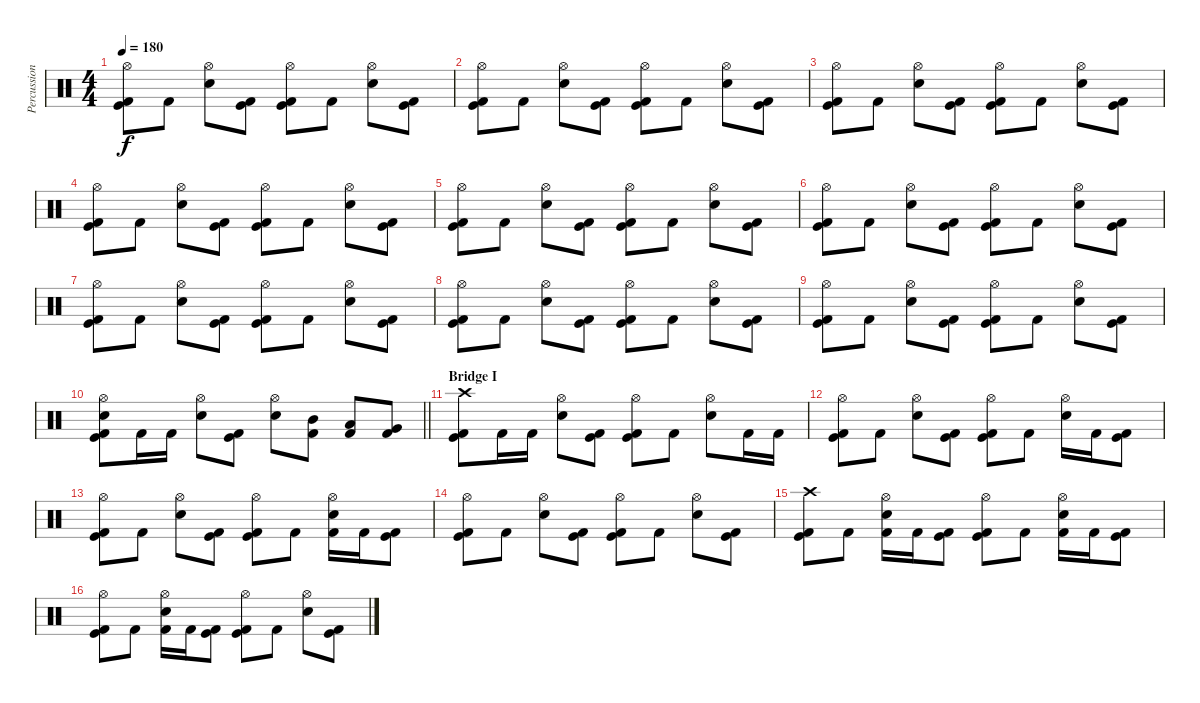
\track ("Percussion" "Percussion") {instrument percussion}
\staff {score}
\articulation defaults
\ts (4 4)
\tempo 180
\clef neutral
\ks c
("Hi-Hat (open)" "Kick (hit)" "Kick (hit) 2").8{dy f} "Kick (hit) 2".8 ("Hi-Hat (open)" "Snare (hit) 2").8 ("Kick (hit)" "Kick (hit) 2").8 ("Hi-Hat (open)" "Kick (hit)" "Kick (hit) 2").8 "Kick (hit) 2".8 ("Hi-Hat (open)" "Snare (hit) 2").8 ("Kick (hit)" "Kick (hit) 2").8 |
("Hi-Hat (open)" "Kick (hit)" "Kick (hit) 2").8 "Kick (hit) 2".8 ("Hi-Hat (open)" "Snare (hit) 2").8 ("Kick (hit)" "Kick (hit) 2").8 ("Hi-Hat (open)" "Kick (hit)" "Kick (hit) 2").8 "Kick (hit) 2".8 ("Hi-Hat (open)" "Snare (hit) 2").8 ("Kick (hit)" "Kick (hit) 2").8 |
("Hi-Hat (open)" "Kick (hit)" "Kick (hit) 2").8 "Kick (hit) 2".8 ("Hi-Hat (open)" "Snare (hit) 2").8 ("Kick (hit)" "Kick (hit) 2").8 ("Hi-Hat (open)" "Kick (hit)" "Kick (hit) 2").8 "Kick (hit) 2".8 ("Hi-Hat (open)" "Snare (hit) 2").8 ("Kick (hit)" "Kick (hit) 2").8 |
("Hi-Hat (open)" "Kick (hit)" "Kick (hit) 2").8 "Kick (hit) 2".8 ("Hi-Hat (open)" "Snare (hit) 2").8 ("Kick (hit)" "Kick (hit) 2").8 ("Hi-Hat (open)" "Kick (hit)" "Kick (hit) 2").8 "Kick (hit) 2".8 ("Hi-Hat (open)" "Snare (hit) 2").8 ("Kick (hit)" "Kick (hit) 2").8 |
("Hi-Hat (open)" "Kick (hit)" "Kick (hit) 2").8 "Kick (hit) 2".8 ("Hi-Hat (open)" "Snare (hit) 2").8 ("Kick (hit)" "Kick (hit) 2").8 ("Hi-Hat (open)" "Kick (hit)" "Kick (hit) 2").8 "Kick (hit) 2".8 ("Hi-Hat (open)" "Snare (hit) 2").8 ("Kick (hit)" "Kick (hit) 2").8 |
("Hi-Hat (open)" "Kick (hit)" "Kick (hit) 2").8 "Kick (hit) 2".8 ("Hi-Hat (open)" "Snare (hit) 2").8 ("Kick (hit)" "Kick (hit) 2").8 ("Hi-Hat (open)" "Kick (hit)" "Kick (hit) 2").8 "Kick (hit) 2".8 ("Hi-Hat (open)" "Snare (hit) 2").8 ("Kick (hit)" "Kick (hit) 2").8 |
("Hi-Hat (open)" "Kick (hit)" "Kick (hit) 2").8 "Kick (hit) 2".8 ("Hi-Hat (open)" "Snare (hit) 2").8 ("Kick (hit)" "Kick (hit) 2").8 ("Hi-Hat (open)" "Kick (hit)" "Kick (hit) 2").8 "Kick (hit) 2".8 ("Hi-Hat (open)" "Snare (hit) 2").8 ("Kick (hit)" "Kick (hit) 2").8 |
("Hi-Hat (open)" "Kick (hit)" "Kick (hit) 2").8 "Kick (hit) 2".8 ("Hi-Hat (open)" "Snare (hit) 2").8 ("Kick (hit)" "Kick (hit) 2").8 ("Hi-Hat (open)" "Kick (hit)" "Kick (hit) 2").8 "Kick (hit) 2".8 ("Hi-Hat (open)" "Snare (hit) 2").8 ("Kick (hit)" "Kick (hit) 2").8 |
("Hi-Hat (open)" "Kick (hit)" "Kick (hit) 2").8 "Kick (hit) 2".8 ("Hi-Hat (open)" "Snare (hit) 2").8 ("Kick (hit)" "Kick (hit) 2").8 ("Hi-Hat (open)" "Kick (hit)" "Kick (hit) 2").8 "Kick (hit) 2".8 ("Hi-Hat (open)" "Snare (hit) 2").8 ("Kick (hit)" "Kick (hit) 2").8 |
\barLineRight lightlight
("Hi-Hat (open)" "Electric Snare (hit)" "Kick (hit)" "Kick (hit) 2").8 "Kick (hit) 2".16 "Kick (hit) 2".16 ("Hi-Hat (open)" "Electric Snare (hit)").8 ("Kick (hit)" "Kick (hit) 2").8 ("Hi-Hat (open)" "Snare (hit) 2").8 ("Mid Tom (hit)" "Kick (hit) 2").8 ("Low Tom (hit)" "Kick (hit) 2").8 ("Very Low Tom (hit)" "Kick (hit) 2").8 |
\section ("" "Bridge I")
("Crash high (hit)" "Kick (hit)" "Kick (hit) 2").8 "Kick (hit) 2".16 "Kick (hit) 2".16 ("Hi-Hat (open)" "Snare (hit) 2").8 ("Kick (hit)" "Kick (hit) 2").8 ("Hi-Hat (open)" "Kick (hit)" "Kick (hit) 2").8 "Kick (hit) 2".8 ("Hi-Hat (open)" "Snare (hit) 2").8 "Kick (hit) 2".16 "Kick (hit) 2".16 |
("Hi-Hat (open)" "Kick (hit)" "Kick (hit) 2").8 "Kick (hit) 2".8 ("Hi-Hat (open)" "Snare (hit) 2").8 ("Kick (hit)" "Kick (hit) 2").8 ("Hi-Hat (open)" "Kick (hit)" "Kick (hit) 2").8 "Kick (hit) 2".8 ("Hi-Hat (open)" "Snare (hit) 2").16 "Kick (hit) 2".16 ("Kick (hit)" "Kick (hit) 2").8 |
("Hi-Hat (open)" "Kick (hit)" "Kick (hit) 2").8 "Kick (hit) 2".8 ("Hi-Hat (open)" "Snare (hit) 2").8 ("Kick (hit)" "Kick (hit) 2").8 ("Hi-Hat (open)" "Kick (hit)" "Kick (hit) 2").8 "Kick (hit) 2".8 ("Hi-Hat (open)" "Snare (hit) 2" "Kick (hit) 2").16 "Kick (hit) 2".16 ("Kick (hit)" "Kick (hit) 2").8 |
("Hi-Hat (open)" "Kick (hit)" "Kick (hit) 2").8 "Kick (hit) 2".8 ("Hi-Hat (open)" "Snare (hit) 2").8 ("Kick (hit)" "Kick (hit) 2").8 ("Hi-Hat (open)" "Kick (hit)" "Kick (hit) 2").8 "Kick (hit) 2".8 ("Hi-Hat (open)" "Snare (hit) 2").8 ("Kick (hit)" "Kick (hit) 2").8 |
("Crash high (hit)" "Kick (hit)" "Kick (hit) 2").8 "Kick (hit) 2".8 ("Hi-Hat (open)" "Snare (hit) 2" "Kick (hit) 2").16 "Kick (hit) 2".16 ("Kick (hit)" "Kick (hit) 2").8 ("Hi-Hat (open)" "Kick (hit)" "Kick (hit) 2").8 "Kick (hit) 2".8 ("Hi-Hat (open)" "Snare (hit) 2" "Kick (hit) 2").16 "Kick (hit) 2".16 ("Kick (hit)" "Kick (hit) 2").8 |
("Hi-Hat (open)" "Kick (hit)" "Kick (hit) 2").8 "Kick (hit) 2".8 ("Hi-Hat (open)" "Snare (hit) 2" "Kick (hit) 2").16 "Kick (hit) 2".16 ("Kick (hit)" "Kick (hit) 2").8 ("Hi-Hat (open)" "Kick (hit)" "Kick (hit) 2").8 "Kick (hit) 2".8 ("Hi-Hat (open)" "Snare (hit) 2").8 ("Kick (hit)" "Kick (hit) 2").8
